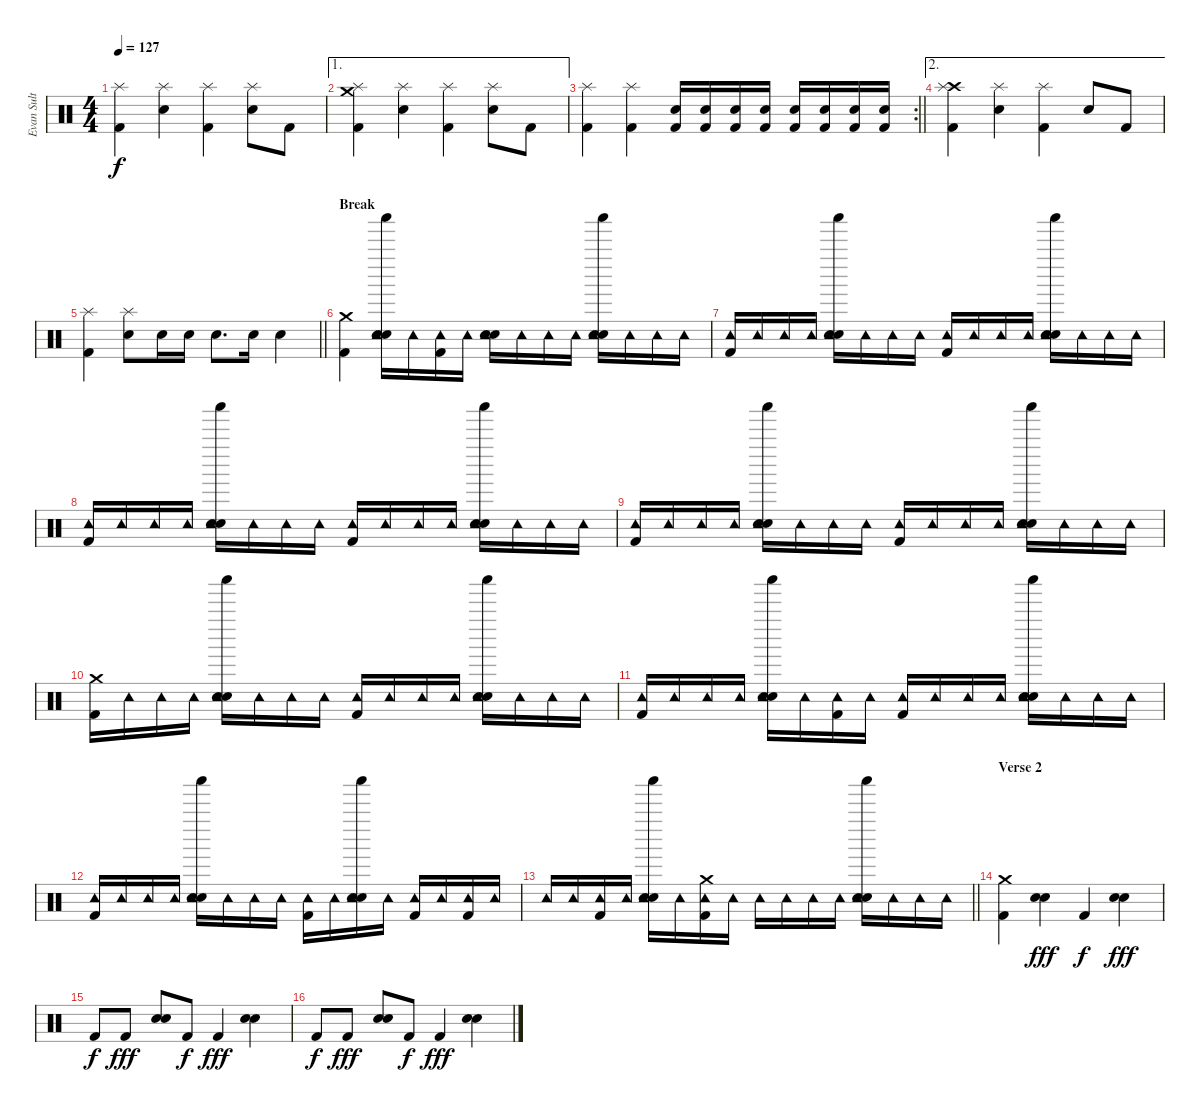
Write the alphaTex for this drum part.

\track ("Evan Sult" "Evan Sult") {instrument percussion}
\staff {score}
\articulation defaults
\ts (4 4)
\tempo 127
\clef neutral
\ks c
("Kick (hit) 2" "Splash (hit)").4{dy f} ("Electric Snare (hit)" "Splash (hit)").4 ("Kick (hit) 2" "Splash (hit)").4 ("Electric Snare (hit)" "Splash (hit)").8 "Kick (hit) 2".8 |
\ae 1
("Kick (hit) 2" "Splash (hit)" "Crash medium (hit)").4 ("Electric Snare (hit)" "Splash (hit)").4 ("Kick (hit) 2" "Splash (hit)").4 ("Electric Snare (hit)" "Splash (hit)").8 "Kick (hit) 2".8 |
\rc 2
\barLineRight lightlight
("Kick (hit) 2" "Splash (hit)").4 ("Kick (hit) 2" "Splash (hit)").4 ("Kick (hit) 2" "Electric Snare (hit)").16 ("Kick (hit) 2" "Electric Snare (hit)").16 ("Kick (hit) 2" "Electric Snare (hit)").16 ("Kick (hit) 2" "Electric Snare (hit)").16 ("Kick (hit) 2" "Electric Snare (hit)").16 ("Kick (hit) 2" "Electric Snare (hit)").16 ("Kick (hit) 2" "Electric Snare (hit)").16 ("Kick (hit) 2" "Electric Snare (hit)").16 |
\ae 2
("Crash high (hit)" "Kick (hit) 2" "Splash (hit)").4 ("Electric Snare (hit)" "Splash (hit)").4 ("Kick (hit) 2" "Splash (hit)").4 "Electric Snare (hit)".8 "Kick (hit) 2".8 |
\barLineRight lightlight
("Kick (hit) 2" "Splash (hit)").4 ("Electric Snare (hit)" "Splash (hit)").8 "Electric Snare (hit)".16 "Electric Snare (hit)".16 "Electric Snare (hit)".8{d} "Electric Snare (hit)".16 "Electric Snare (hit)".4 |
\section ("" "Break")
("Crash medium (hit)" "Kick (hit) 2").4 ("Snare (hit) 2" "Tambourine (hit)" "Shaker (hit)" "Electric Snare (hit)").16 "Tambourine (hit)".16 ("Kick (hit) 2" "Tambourine (hit)").16 "Tambourine (hit)".16 ("Snare (hit) 2" "Tambourine (hit)" "Electric Snare (hit)").16 "Tambourine (hit)".16 "Tambourine (hit)".16 "Tambourine (hit)".16 ("Snare (hit) 2" "Tambourine (hit)" "Shaker (hit)" "Electric Snare (hit)").16 "Tambourine (hit)".16 "Tambourine (hit)".16 "Tambourine (hit)".16 |
("Kick (hit) 2" "Tambourine (hit)").16 "Tambourine (hit)".16 "Tambourine (hit)".16 "Tambourine (hit)".16 ("Snare (hit) 2" "Tambourine (hit)" "Shaker (hit)" "Electric Snare (hit)").16 "Tambourine (hit)".16 "Tambourine (hit)".16 "Tambourine (hit)".16 ("Kick (hit) 2" "Tambourine (hit)").16 "Tambourine (hit)".16 "Tambourine (hit)".16 "Tambourine (hit)".16 ("Snare (hit) 2" "Tambourine (hit)" "Shaker (hit)" "Electric Snare (hit)").16 "Tambourine (hit)".16 "Tambourine (hit)".16 "Tambourine (hit)".16 |
("Kick (hit) 2" "Tambourine (hit)").16 "Tambourine (hit)".16 "Tambourine (hit)".16 "Tambourine (hit)".16 ("Snare (hit) 2" "Tambourine (hit)" "Shaker (hit)" "Electric Snare (hit)").16 "Tambourine (hit)".16 "Tambourine (hit)".16 "Tambourine (hit)".16 ("Kick (hit) 2" "Tambourine (hit)").16 "Tambourine (hit)".16 "Tambourine (hit)".16 "Tambourine (hit)".16 ("Snare (hit) 2" "Tambourine (hit)" "Shaker (hit)" "Electric Snare (hit)").16 "Tambourine (hit)".16 "Tambourine (hit)".16 "Tambourine (hit)".16 |
("Kick (hit) 2" "Tambourine (hit)").16 "Tambourine (hit)".16 "Tambourine (hit)".16 "Tambourine (hit)".16 ("Snare (hit) 2" "Tambourine (hit)" "Shaker (hit)" "Electric Snare (hit)").16 "Tambourine (hit)".16 "Tambourine (hit)".16 "Tambourine (hit)".16 ("Kick (hit) 2" "Tambourine (hit)").16 "Tambourine (hit)".16 "Tambourine (hit)".16 "Tambourine (hit)".16 ("Snare (hit) 2" "Tambourine (hit)" "Shaker (hit)" "Electric Snare (hit)").16 "Tambourine (hit)".16 "Tambourine (hit)".16 "Tambourine (hit)".16 |
("Crash medium (hit)" "Kick (hit) 2").16 "Tambourine (hit)".16 "Tambourine (hit)".16 "Tambourine (hit)".16 ("Snare (hit) 2" "Tambourine (hit)" "Shaker (hit)" "Electric Snare (hit)").16 "Tambourine (hit)".16 "Tambourine (hit)".16 "Tambourine (hit)".16 ("Kick (hit) 2" "Tambourine (hit)").16 "Tambourine (hit)".16 "Tambourine (hit)".16 "Tambourine (hit)".16 ("Snare (hit) 2" "Tambourine (hit)" "Shaker (hit)" "Electric Snare (hit)").16 "Tambourine (hit)".16 "Tambourine (hit)".16 "Tambourine (hit)".16 |
("Kick (hit) 2" "Tambourine (hit)").16 "Tambourine (hit)".16 "Tambourine (hit)".16 "Tambourine (hit)".16 ("Snare (hit) 2" "Tambourine (hit)" "Shaker (hit)" "Electric Snare (hit)").16 "Tambourine (hit)".16 ("Kick (hit) 2" "Tambourine (hit)").16 "Tambourine (hit)".16 ("Kick (hit) 2" "Tambourine (hit)").16 "Tambourine (hit)".16 "Tambourine (hit)".16 "Tambourine (hit)".16 ("Snare (hit) 2" "Tambourine (hit)" "Shaker (hit)" "Electric Snare (hit)").16 "Tambourine (hit)".16 "Tambourine (hit)".16 "Tambourine (hit)".16 |
("Kick (hit) 2" "Tambourine (hit)").16 "Tambourine (hit)".16 "Tambourine (hit)".16 "Tambourine (hit)".16 ("Snare (hit) 2" "Tambourine (hit)" "Shaker (hit)" "Electric Snare (hit)").16 "Tambourine (hit)".16 "Tambourine (hit)".16 "Tambourine (hit)".16 ("Kick (hit) 2" "Tambourine (hit)").16 "Tambourine (hit)".16 ("Snare (hit) 2" "Tambourine (hit)" "Shaker (hit)" "Electric Snare (hit)").16 "Tambourine (hit)".16 ("Kick (hit) 2" "Tambourine (hit)").16 "Tambourine (hit)".16 ("Kick (hit) 2" "Tambourine (hit)").16 "Tambourine (hit)".16 |
\barLineRight lightlight "Tambourine (hit)".16 "Tambourine (hit)".16
("Kick (hit) 2" "Tambourine (hit)").16 "Tambourine (hit)".16 ("Snare (hit) 2" "Tambourine (hit)" "Shaker (hit)" "Electric Snare (hit)").16 "Tambourine (hit)".16 ("Kick (hit) 2" "Tambourine (hit)" "Crash medium (hit)").16 "Tambourine (hit)".16 "Tambourine (hit)".16 "Tambourine (hit)".16 "Tambourine (hit)".16 "Tambourine (hit)".16 ("Snare (hit) 2" "Tambourine (hit)" "Shaker (hit)" "Electric Snare (hit)").16 "Tambourine (hit)".16 "Tambourine (hit)".16 "Tambourine (hit)".16 |
\section ("" "Verse 2")
("Crash medium (hit)" "Kick (hit) 2").4 ("Electric Snare (hit)" "Snare (hit) 2").4{dy fff} "Kick (hit) 2".4{dy f} ("Electric Snare (hit)" "Snare (hit) 2").4{dy fff} |
"Kick (hit) 2".8{dy f} "Kick (hit) 2".8{dy fff} ("Electric Snare (hit)" "Snare (hit) 2").8 "Kick (hit) 2".8{dy f} "Kick (hit) 2".4{dy fff} ("Electric Snare (hit)" "Snare (hit) 2").4 |
"Kick (hit) 2".8{dy f} "Kick (hit) 2".8{dy fff} ("Electric Snare (hit)" "Snare (hit) 2").8 "Kick (hit) 2".8{dy f} "Kick (hit) 2".4{dy fff} ("Electric Snare (hit)" "Snare (hit) 2").4
